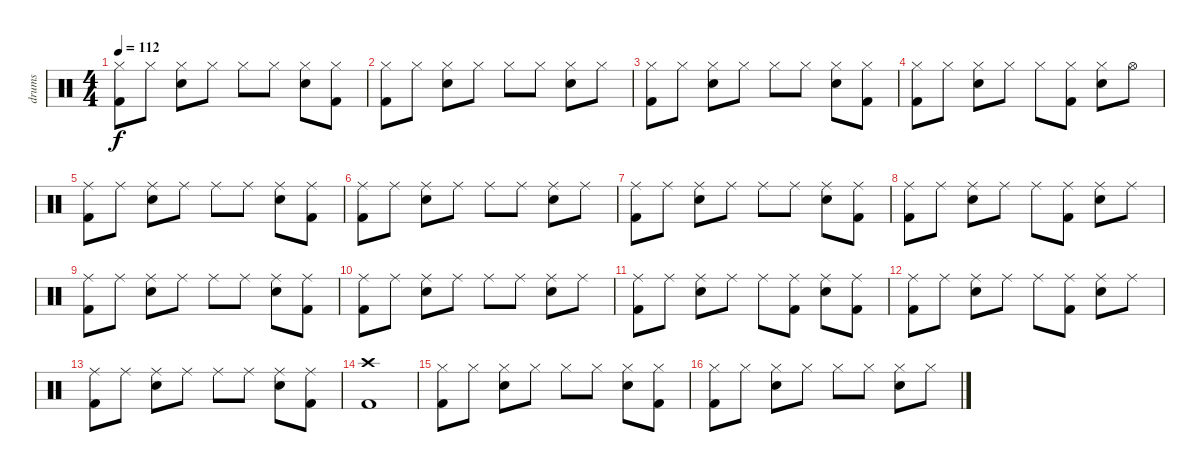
\track ("drums" "drums") {instrument percussion}
\staff {score}
\articulation defaults
\ts (4 4)
\tempo 112
\clef neutral
\ks c
("Hi-Hat (closed)" "Kick (hit) 2").8{dy f} "Hi-Hat (closed)".8 ("Hi-Hat (closed)" "Snare (hit) 2").8 "Hi-Hat (closed)".8 "Hi-Hat (closed)".8 "Hi-Hat (closed)".8 ("Hi-Hat (closed)" "Snare (hit) 2").8 ("Hi-Hat (closed)" "Kick (hit) 2").8 |
("Hi-Hat (closed)" "Kick (hit) 2").8 "Hi-Hat (closed)".8 ("Hi-Hat (closed)" "Snare (hit) 2").8 "Hi-Hat (closed)".8 "Hi-Hat (closed)".8 "Hi-Hat (closed)".8 ("Hi-Hat (closed)" "Snare (hit) 2").8 "Hi-Hat (closed)".8 |
("Hi-Hat (closed)" "Kick (hit) 2").8 "Hi-Hat (closed)".8 ("Hi-Hat (closed)" "Snare (hit) 2").8 "Hi-Hat (closed)".8 "Hi-Hat (closed)".8 "Hi-Hat (closed)".8 ("Hi-Hat (closed)" "Snare (hit) 2").8 ("Hi-Hat (closed)" "Kick (hit) 2").8 |
("Hi-Hat (closed)" "Kick (hit) 2").8 "Hi-Hat (closed)".8 ("Hi-Hat (closed)" "Snare (hit) 2").8 "Hi-Hat (closed)".8 "Hi-Hat (closed)".8 ("Hi-Hat (closed)" "Kick (hit) 2").8 ("Hi-Hat (closed)" "Snare (hit) 2").8 "Hi-Hat (open)".8 |
("Ride (middle)" "Kick (hit) 2").8 "Ride (middle)".8 ("Ride (middle)" "Snare (hit) 2").8 "Ride (middle)".8 "Ride (middle)".8 "Ride (middle)".8 ("Ride (middle)" "Snare (hit) 2").8 ("Ride (middle)" "Kick (hit) 2").8 |
("Ride (middle)" "Kick (hit) 2").8 "Ride (middle)".8 ("Ride (middle)" "Snare (hit) 2").8 "Ride (middle)".8 "Ride (middle)".8 "Ride (middle)".8 ("Ride (middle)" "Snare (hit) 2").8 "Ride (middle)".8 |
("Ride (middle)" "Kick (hit) 2").8 "Ride (middle)".8 ("Ride (middle)" "Snare (hit) 2").8 "Ride (middle)".8 "Ride (middle)".8 "Ride (middle)".8 ("Ride (middle)" "Snare (hit) 2").8 ("Ride (middle)" "Kick (hit) 2").8 |
("Ride (middle)" "Kick (hit) 2").8 "Ride (middle)".8 ("Ride (middle)" "Snare (hit) 2").8 "Ride (middle)".8 "Ride (middle)".8 ("Ride (middle)" "Kick (hit) 2").8 ("Ride (middle)" "Snare (hit) 2").8 "Ride (middle)".8 |
("Ride (middle)" "Kick (hit) 2").8 "Ride (middle)".8 ("Ride (middle)" "Snare (hit) 2").8 "Ride (middle)".8 "Ride (middle)".8 "Ride (middle)".8 ("Ride (middle)" "Snare (hit) 2").8 ("Ride (middle)" "Kick (hit) 2").8 |
("Ride (middle)" "Kick (hit) 2").8 "Ride (middle)".8 ("Ride (middle)" "Snare (hit) 2").8 "Ride (middle)".8 "Ride (middle)".8 "Ride (middle)".8 ("Ride (middle)" "Snare (hit) 2").8 "Ride (middle)".8 |
("Ride (middle)" "Kick (hit) 2").8 "Ride (middle)".8 ("Ride (middle)" "Snare (hit) 2").8 "Ride (middle)".8 "Ride (middle)".8 ("Ride (middle)" "Kick (hit) 2").8 ("Ride (middle)" "Snare (hit) 2").8 ("Ride (middle)" "Kick (hit) 2").8 |
("Ride (middle)" "Kick (hit) 2").8 "Ride (middle)".8 ("Ride (middle)" "Snare (hit) 2").8 "Ride (middle)".8 "Ride (middle)".8 ("Ride (middle)" "Kick (hit) 2").8 ("Ride (middle)" "Snare (hit) 2").8 "Ride (middle)".8 |
("Ride (middle)" "Kick (hit) 2").8 "Ride (middle)".8 ("Ride (middle)" "Snare (hit) 2").8 "Ride (middle)".8 "Ride (middle)".8 "Ride (middle)".8 ("Ride (middle)" "Snare (hit) 2").8 ("Ride (middle)" "Kick (hit) 2").8 |
("Crash high (hit)" "Kick (hit) 2").1 |
("Hi-Hat (closed)" "Kick (hit) 2").8 "Hi-Hat (closed)".8 ("Hi-Hat (closed)" "Snare (hit) 2").8 "Hi-Hat (closed)".8 "Hi-Hat (closed)".8 "Hi-Hat (closed)".8 ("Hi-Hat (closed)" "Snare (hit) 2").8 ("Hi-Hat (closed)" "Kick (hit) 2").8 |
("Hi-Hat (closed)" "Kick (hit) 2").8 "Hi-Hat (closed)".8 ("Hi-Hat (closed)" "Snare (hit) 2").8 "Hi-Hat (closed)".8 "Hi-Hat (closed)".8 "Hi-Hat (closed)".8 ("Hi-Hat (closed)" "Snare (hit) 2").8 "Hi-Hat (closed)".8
